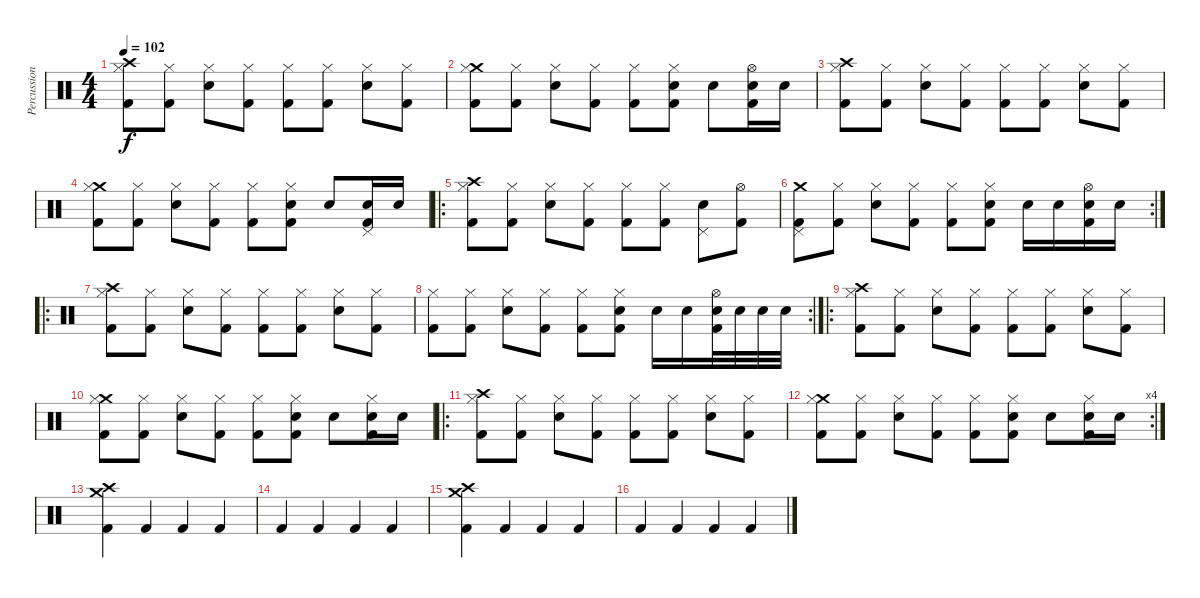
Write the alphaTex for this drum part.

\track ("Percussion" "Percussion") {instrument percussion}
\staff {score}
\articulation defaults
\ts (4 4)
\tempo 102
\clef neutral
\ks c
("Crash high (hit)" "Hi-Hat (closed)" "Kick (hit) 2").8{dy f} ("Hi-Hat (closed)" "Kick (hit) 2").8 ("Snare (hit) 2" "Hi-Hat (closed)").8 ("Hi-Hat (closed)" "Kick (hit) 2").8 ("Hi-Hat (closed)" "Kick (hit) 2").8 ("Hi-Hat (closed)" "Kick (hit) 2").8 ("Snare (hit) 2" "Hi-Hat (closed)").8 ("Hi-Hat (closed)" "Kick (hit) 2").8 |
("Crash medium (hit)" "Hi-Hat (closed)" "Kick (hit) 2").8 ("Hi-Hat (closed)" "Kick (hit) 2").8 ("Snare (hit) 2" "Hi-Hat (closed)").8 ("Hi-Hat (closed)" "Kick (hit) 2").8 ("Hi-Hat (closed)" "Kick (hit) 2").8 ("Snare (hit) 2" "Hi-Hat (closed)" "Kick (hit) 2").8 "Snare (hit) 2".8 ("Snare (hit) 2" "Hi-Hat (open)" "Kick (hit) 2").16 "Snare (hit) 2".16 |
("Crash high (hit)" "Hi-Hat (closed)" "Kick (hit) 2").8 ("Hi-Hat (closed)" "Kick (hit) 2").8 ("Snare (hit) 2" "Hi-Hat (closed)").8 ("Hi-Hat (closed)" "Kick (hit) 2").8 ("Hi-Hat (closed)" "Kick (hit) 2").8 ("Hi-Hat (closed)" "Kick (hit) 2").8 ("Snare (hit) 2" "Hi-Hat (closed)").8 ("Hi-Hat (closed)" "Kick (hit) 2").8 |
("Crash medium (hit)" "Hi-Hat (closed)" "Kick (hit) 2").8 ("Hi-Hat (closed)" "Kick (hit) 2").8 ("Snare (hit) 2" "Hi-Hat (closed)").8 ("Hi-Hat (closed)" "Kick (hit) 2").8 ("Hi-Hat (closed)" "Kick (hit) 2").8 ("Snare (hit) 2" "Hi-Hat (closed)" "Kick (hit) 2").8 "Snare (hit) 2".8 ("Snare (hit) 2" "Pedal Hi-Hat (hit)" "Kick (hit) 2").16 "Snare (hit) 2".16 |
\ro
("Crash high (hit)" "Hi-Hat (closed)" "Kick (hit) 2").8 ("Hi-Hat (closed)" "Kick (hit) 2").8 ("Snare (hit) 2" "Hi-Hat (closed)").8 ("Hi-Hat (closed)" "Kick (hit) 2").8 ("Hi-Hat (closed)" "Kick (hit) 2").8 ("Hi-Hat (closed)" "Kick (hit) 2").8 ("Snare (hit) 2" "Pedal Hi-Hat (hit)").8 ("Hi-Hat (open)" "Kick (hit) 2").8 |
\rc 2
("Crash medium (hit)" "Pedal Hi-Hat (hit)" "Kick (hit) 2").8 ("Hi-Hat (closed)" "Kick (hit) 2").8 ("Snare (hit) 2" "Hi-Hat (closed)").8 ("Hi-Hat (closed)" "Kick (hit) 2").8 ("Hi-Hat (closed)" "Kick (hit) 2").8 ("Snare (hit) 2" "Hi-Hat (closed)" "Kick (hit) 2").8 "Snare (hit) 2".16 "Snare (hit) 2".16 ("Snare (hit) 2" "Hi-Hat (open)" "Kick (hit) 2").16 "Snare (hit) 2".16 |
\ro
("Crash high (hit)" "Hi-Hat (closed)" "Kick (hit) 2").8 ("Hi-Hat (closed)" "Kick (hit) 2").8 ("Snare (hit) 2" "Hi-Hat (closed)").8 ("Hi-Hat (closed)" "Kick (hit) 2").8 ("Hi-Hat (closed)" "Kick (hit) 2").8 ("Hi-Hat (closed)" "Kick (hit) 2").8 ("Snare (hit) 2" "Hi-Hat (closed)").8 ("Hi-Hat (closed)" "Kick (hit) 2").8 |
\rc 2
("Hi-Hat (closed)" "Kick (hit) 2").8 ("Hi-Hat (closed)" "Kick (hit) 2").8 ("Snare (hit) 2" "Hi-Hat (closed)").8 ("Hi-Hat (closed)" "Kick (hit) 2").8 ("Hi-Hat (closed)" "Kick (hit) 2").8 ("Snare (hit) 2" "Hi-Hat (closed)" "Kick (hit) 2").8 "Snare (hit) 2".16 "Snare (hit) 2".16 ("Snare (hit) 2" "Hi-Hat (open)" "Kick (hit) 2").32 "Snare (hit) 2".32 "Snare (hit) 2".32 "Snare (hit) 2".32 |
\ro
("Crash high (hit)" "Hi-Hat (closed)" "Kick (hit) 2").8 ("Hi-Hat (closed)" "Kick (hit) 2").8 ("Snare (hit) 2" "Hi-Hat (closed)").8 ("Hi-Hat (closed)" "Kick (hit) 2").8 ("Hi-Hat (closed)" "Kick (hit) 2").8 ("Hi-Hat (closed)" "Kick (hit) 2").8 ("Snare (hit) 2" "Hi-Hat (closed)").8 ("Hi-Hat (closed)" "Kick (hit) 2").8 |
("Crash medium (hit)" "Hi-Hat (closed)" "Kick (hit) 2").8 ("Hi-Hat (closed)" "Kick (hit) 2").8 ("Snare (hit) 2" "Hi-Hat (closed)").8 ("Hi-Hat (closed)" "Kick (hit) 2").8 ("Hi-Hat (closed)" "Kick (hit) 2").8 ("Snare (hit) 2" "Hi-Hat (closed)" "Kick (hit) 2").8 "Snare (hit) 2".8 ("Snare (hit) 2" "Hi-Hat (closed)" "Kick (hit) 2").16 "Snare (hit) 2".16 |
\ro
("Crash high (hit)" "Hi-Hat (closed)" "Kick (hit) 2").8 ("Hi-Hat (closed)" "Kick (hit) 2").8 ("Snare (hit) 2" "Hi-Hat (closed)").8 ("Hi-Hat (closed)" "Kick (hit) 2").8 ("Hi-Hat (closed)" "Kick (hit) 2").8 ("Hi-Hat (closed)" "Kick (hit) 2").8 ("Snare (hit) 2" "Hi-Hat (closed)").8 ("Hi-Hat (closed)" "Kick (hit) 2").8 |
\rc 4
("Crash medium (hit)" "Hi-Hat (closed)" "Kick (hit) 2").8 ("Hi-Hat (closed)" "Kick (hit) 2").8 ("Snare (hit) 2" "Hi-Hat (closed)").8 ("Hi-Hat (closed)" "Kick (hit) 2").8 ("Hi-Hat (closed)" "Kick (hit) 2").8 ("Snare (hit) 2" "Hi-Hat (closed)" "Kick (hit) 2").8 "Snare (hit) 2".8 ("Snare (hit) 2" "Hi-Hat (closed)" "Kick (hit) 2").16 "Snare (hit) 2".16 |
("Crash high (hit)" "Crash medium (hit)" "Kick (hit) 2").4 "Kick (hit) 2".4 "Kick (hit) 2".4 "Kick (hit) 2".4 |
"Kick (hit) 2".4 "Kick (hit) 2".4 "Kick (hit) 2".4 "Kick (hit) 2".4 |
("Crash high (hit)" "Crash medium (hit)" "Kick (hit) 2").4 "Kick (hit) 2".4 "Kick (hit) 2".4 "Kick (hit) 2".4 |
"Kick (hit) 2".4 "Kick (hit) 2".4 "Kick (hit) 2".4 "Kick (hit) 2".4
